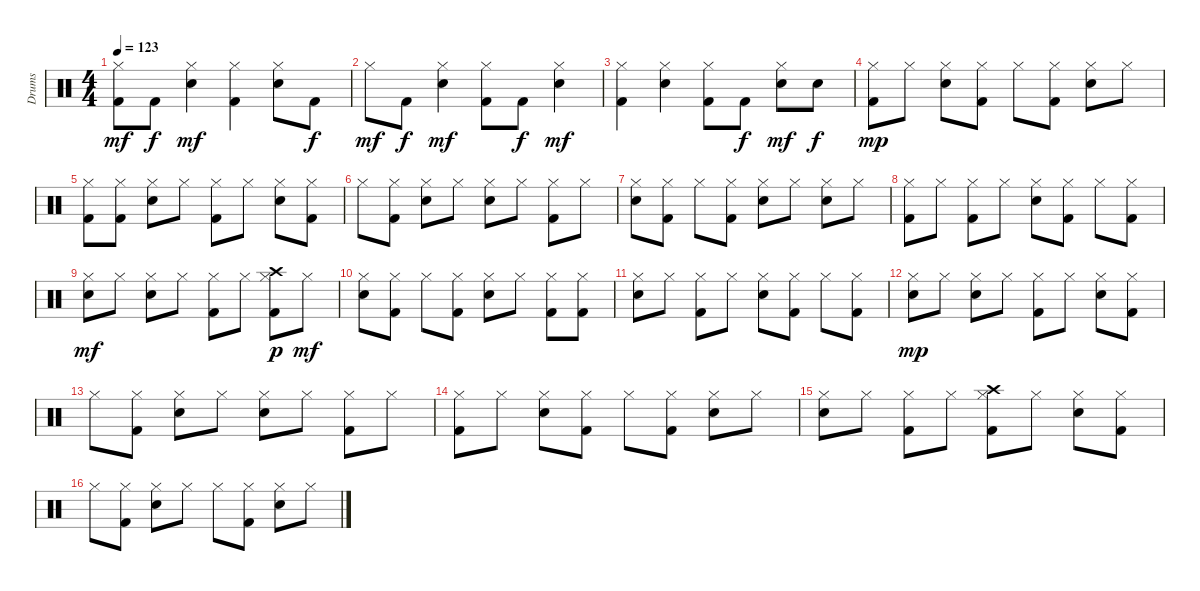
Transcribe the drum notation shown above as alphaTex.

\track ("Drums" "Drums") {instrument percussion}
\staff {score}
\articulation defaults
\ts (4 4)
\tempo 123
\clef neutral
\ks c
("Kick (hit) 2" "Hi-Hat (closed)").8{dy mf} "Kick (hit) 2".8{dy f} ("Electric Snare (hit)" "Hi-Hat (closed)").4{dy mf} ("Kick (hit) 2" "Hi-Hat (closed)").4 ("Electric Snare (hit)" "Hi-Hat (closed)").8 "Kick (hit) 2".8{dy f} |
"Hi-Hat (closed)".8{dy mf} "Kick (hit) 2".8{dy f} ("Electric Snare (hit)" "Hi-Hat (closed)").4{dy mf} ("Kick (hit) 2" "Hi-Hat (closed)").8 "Kick (hit) 2".8{dy f} ("Electric Snare (hit)" "Hi-Hat (closed)").4{dy mf} |
("Kick (hit) 2" "Hi-Hat (closed)").4 ("Electric Snare (hit)" "Hi-Hat (closed)").4 ("Kick (hit) 2" "Hi-Hat (closed)").8 "Kick (hit) 2".8{dy f} ("Electric Snare (hit)" "Hi-Hat (closed)").8{dy mf} "Electric Snare (hit)".8{dy f} |
("Kick (hit) 2" "Hi-Hat (closed)").8{dy mp} "Hi-Hat (closed)".8 ("Electric Snare (hit)" "Hi-Hat (closed)").8 ("Kick (hit) 2" "Hi-Hat (closed)").8 "Hi-Hat (closed)".8 ("Kick (hit) 2" "Hi-Hat (closed)").8 ("Electric Snare (hit)" "Hi-Hat (closed)").8 "Hi-Hat (closed)".8 |
("Kick (hit) 2" "Hi-Hat (closed)").8 ("Kick (hit) 2" "Hi-Hat (closed)").8 ("Electric Snare (hit)" "Hi-Hat (closed)").8 "Hi-Hat (closed)".8 ("Kick (hit) 2" "Hi-Hat (closed)").8 "Hi-Hat (closed)".8 ("Electric Snare (hit)" "Hi-Hat (closed)").8 ("Kick (hit) 2" "Hi-Hat (closed)").8 |
"Hi-Hat (closed)".8 ("Kick (hit) 2" "Hi-Hat (closed)").8 ("Electric Snare (hit)" "Hi-Hat (closed)").8 "Hi-Hat (closed)".8 ("Electric Snare (hit)" "Hi-Hat (closed)").8 "Hi-Hat (closed)".8 ("Kick (hit) 2" "Hi-Hat (closed)").8 "Hi-Hat (closed)".8 |
("Electric Snare (hit)" "Hi-Hat (closed)").8 ("Kick (hit) 2" "Hi-Hat (closed)").8 "Hi-Hat (closed)".8 ("Kick (hit) 2" "Hi-Hat (closed)").8 ("Electric Snare (hit)" "Hi-Hat (closed)").8 "Hi-Hat (closed)".8 ("Electric Snare (hit)" "Hi-Hat (closed)").8 "Hi-Hat (closed)".8 |
("Kick (hit) 2" "Hi-Hat (closed)").8 "Hi-Hat (closed)".8 ("Kick (hit) 2" "Hi-Hat (closed)").8 "Hi-Hat (closed)".8 ("Electric Snare (hit)" "Hi-Hat (closed)").8 ("Kick (hit) 2" "Hi-Hat (closed)").8 "Hi-Hat (closed)".8 ("Kick (hit) 2" "Hi-Hat (closed)").8 |
("Electric Snare (hit)" "Hi-Hat (closed)").8{dy mf} "Hi-Hat (closed)".8 ("Electric Snare (hit)" "Hi-Hat (closed)").8 "Hi-Hat (closed)".8 ("Kick (hit) 2" "Hi-Hat (closed)").8 "Hi-Hat (closed)".8 ("Kick (hit) 2" "Hi-Hat (closed)" "Crash high (hit)").8{dy p} "Hi-Hat (closed)".8{dy mf} |
("Electric Snare (hit)" "Hi-Hat (closed)").8 ("Kick (hit) 2" "Hi-Hat (closed)").8 "Hi-Hat (closed)".8 ("Kick (hit) 2" "Hi-Hat (closed)").8 ("Electric Snare (hit)" "Hi-Hat (closed)").8 "Hi-Hat (closed)".8 ("Kick (hit) 2" "Hi-Hat (closed)").8 ("Kick (hit) 2" "Hi-Hat (closed)").8 |
("Electric Snare (hit)" "Hi-Hat (closed)").8 "Hi-Hat (closed)".8 ("Kick (hit) 2" "Hi-Hat (closed)").8 "Hi-Hat (closed)".8 ("Electric Snare (hit)" "Hi-Hat (closed)").8 ("Kick (hit) 2" "Hi-Hat (closed)").8 "Hi-Hat (closed)".8 ("Kick (hit) 2" "Hi-Hat (closed)").8 |
("Electric Snare (hit)" "Hi-Hat (closed)").8{dy mp} "Hi-Hat (closed)".8 ("Electric Snare (hit)" "Hi-Hat (closed)").8 "Hi-Hat (closed)".8 ("Kick (hit) 2" "Hi-Hat (closed)").8 "Hi-Hat (closed)".8 ("Electric Snare (hit)" "Hi-Hat (closed)").8 ("Kick (hit) 2" "Hi-Hat (closed)").8 |
"Hi-Hat (closed)".8 ("Kick (hit) 2" "Hi-Hat (closed)").8 ("Electric Snare (hit)" "Hi-Hat (closed)").8 "Hi-Hat (closed)".8 ("Electric Snare (hit)" "Hi-Hat (closed)").8 "Hi-Hat (closed)".8 ("Kick (hit) 2" "Hi-Hat (closed)").8 "Hi-Hat (closed)".8 |
("Kick (hit) 2" "Hi-Hat (closed)").8 "Hi-Hat (closed)".8 ("Electric Snare (hit)" "Hi-Hat (closed)").8 ("Kick (hit) 2" "Hi-Hat (closed)").8 "Hi-Hat (closed)".8 ("Kick (hit) 2" "Hi-Hat (closed)").8 ("Electric Snare (hit)" "Hi-Hat (closed)").8 "Hi-Hat (closed)".8 |
("Electric Snare (hit)" "Hi-Hat (closed)").8 "Hi-Hat (closed)".8 ("Kick (hit) 2" "Hi-Hat (closed)").8 "Hi-Hat (closed)".8 ("Kick (hit) 2" "Hi-Hat (closed)" "Crash high (hit)").8 "Hi-Hat (closed)".8 ("Electric Snare (hit)" "Hi-Hat (closed)").8 ("Kick (hit) 2" "Hi-Hat (closed)").8 |
"Hi-Hat (closed)".8 ("Kick (hit) 2" "Hi-Hat (closed)").8 ("Electric Snare (hit)" "Hi-Hat (closed)").8 "Hi-Hat (closed)".8 "Hi-Hat (closed)".8 ("Kick (hit) 2" "Hi-Hat (closed)").8 ("Electric Snare (hit)" "Hi-Hat (closed)").8 "Hi-Hat (closed)".8
